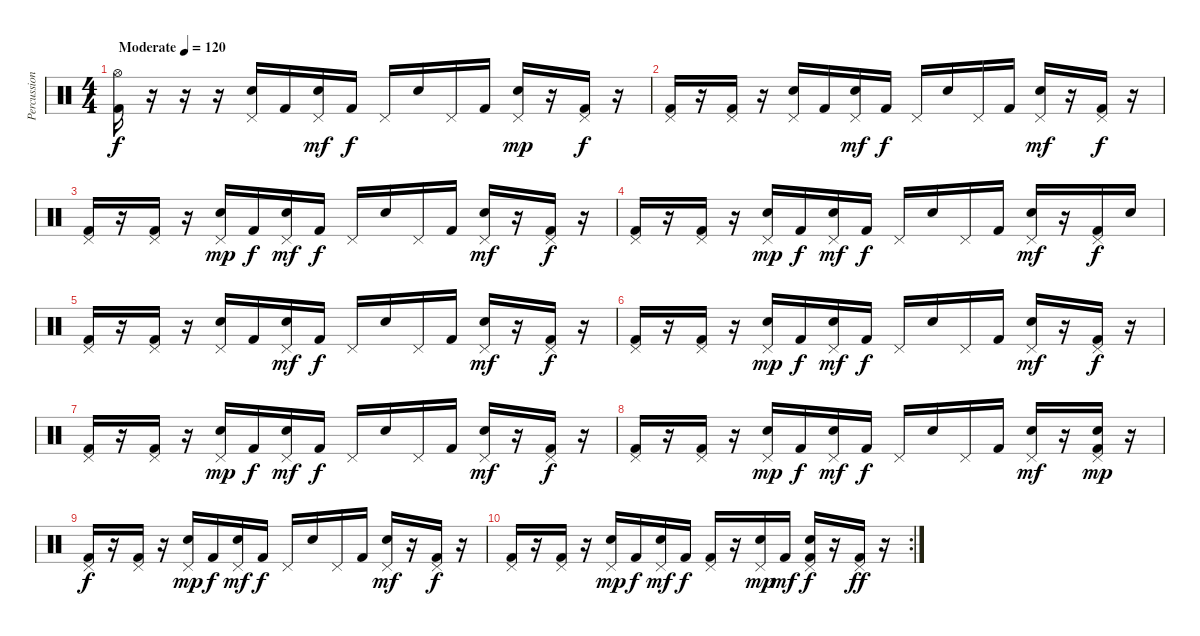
\track ("Percussion" "Percussion") {instrument percussion}
\staff {score}
\articulation defaults
\ts (4 4)
\tempo (120 "Moderate")
\clef neutral
\ks c
("Hi-Hat (open)" "Kick (hit) 2").16{dy f} r.16 r.16 r.16 ("Electric Snare (hit)" "Pedal Hi-Hat (hit)").16 "Kick (hit) 2".16 ("Electric Snare (hit)" "Pedal Hi-Hat (hit)").16{dy mf} "Kick (hit) 2".16{dy f} "Pedal Hi-Hat (hit)".16 "Electric Snare (hit)".16 "Pedal Hi-Hat (hit)".16 "Kick (hit) 2".16 ("Electric Snare (hit)" "Pedal Hi-Hat (hit)").16{dy mp} r.16 ("Pedal Hi-Hat (hit)" "Kick (hit) 2").16{dy f} r.16 |
("Pedal Hi-Hat (hit)" "Kick (hit) 2").16 r.16 ("Pedal Hi-Hat (hit)" "Kick (hit) 2").16 r.16 ("Electric Snare (hit)" "Pedal Hi-Hat (hit)").16 "Kick (hit) 2".16 ("Electric Snare (hit)" "Pedal Hi-Hat (hit)").16{dy mf} "Kick (hit) 2".16{dy f} "Pedal Hi-Hat (hit)".16 "Electric Snare (hit)".16 "Pedal Hi-Hat (hit)".16 "Kick (hit) 2".16 ("Electric Snare (hit)" "Pedal Hi-Hat (hit)").16{dy mf} r.16 ("Pedal Hi-Hat (hit)" "Kick (hit) 2").16{dy f} r.16 |
("Pedal Hi-Hat (hit)" "Kick (hit) 2").16 r.16 ("Pedal Hi-Hat (hit)" "Kick (hit) 2").16 r.16 ("Electric Snare (hit)" "Pedal Hi-Hat (hit)").16{dy mp} "Kick (hit) 2".16{dy f} ("Electric Snare (hit)" "Pedal Hi-Hat (hit)").16{dy mf} "Kick (hit) 2".16{dy f} "Pedal Hi-Hat (hit)".16 "Electric Snare (hit)".16 "Pedal Hi-Hat (hit)".16 "Kick (hit) 2".16 ("Electric Snare (hit)" "Pedal Hi-Hat (hit)").16{dy mf} r.16 ("Pedal Hi-Hat (hit)" "Kick (hit) 2").16{dy f} r.16 |
("Pedal Hi-Hat (hit)" "Kick (hit) 2").16 r.16 ("Pedal Hi-Hat (hit)" "Kick (hit) 2").16 r.16 ("Electric Snare (hit)" "Pedal Hi-Hat (hit)").16{dy mp} "Kick (hit) 2".16{dy f} ("Electric Snare (hit)" "Pedal Hi-Hat (hit)").16{dy mf} "Kick (hit) 2".16{dy f} "Pedal Hi-Hat (hit)".16 "Electric Snare (hit)".16 "Pedal Hi-Hat (hit)".16 "Kick (hit) 2".16 ("Electric Snare (hit)" "Pedal Hi-Hat (hit)").16{dy mf} r.16 ("Pedal Hi-Hat (hit)" "Kick (hit) 2").16{dy f} "Electric Snare (hit)".16 |
("Pedal Hi-Hat (hit)" "Kick (hit) 2").16 r.16 ("Pedal Hi-Hat (hit)" "Kick (hit) 2").16 r.16 ("Electric Snare (hit)" "Pedal Hi-Hat (hit)").16 "Kick (hit) 2".16 ("Electric Snare (hit)" "Pedal Hi-Hat (hit)").16{dy mf} "Kick (hit) 2".16{dy f} "Pedal Hi-Hat (hit)".16 "Electric Snare (hit)".16 "Pedal Hi-Hat (hit)".16 "Kick (hit) 2".16 ("Electric Snare (hit)" "Pedal Hi-Hat (hit)").16{dy mf} r.16 ("Pedal Hi-Hat (hit)" "Kick (hit) 2").16{dy f} r.16 |
("Pedal Hi-Hat (hit)" "Kick (hit) 2").16 r.16 ("Pedal Hi-Hat (hit)" "Kick (hit) 2").16 r.16 ("Electric Snare (hit)" "Pedal Hi-Hat (hit)").16{dy mp} "Kick (hit) 2".16{dy f} ("Electric Snare (hit)" "Pedal Hi-Hat (hit)").16{dy mf} "Kick (hit) 2".16{dy f} "Pedal Hi-Hat (hit)".16 "Electric Snare (hit)".16 "Pedal Hi-Hat (hit)".16 "Kick (hit) 2".16 ("Electric Snare (hit)" "Pedal Hi-Hat (hit)").16{dy mf} r.16 ("Pedal Hi-Hat (hit)" "Kick (hit) 2").16{dy f} r.16 |
("Pedal Hi-Hat (hit)" "Kick (hit) 2").16 r.16 ("Pedal Hi-Hat (hit)" "Kick (hit) 2").16 r.16 ("Electric Snare (hit)" "Pedal Hi-Hat (hit)").16{dy mp} "Kick (hit) 2".16{dy f} ("Electric Snare (hit)" "Pedal Hi-Hat (hit)").16{dy mf} "Kick (hit) 2".16{dy f} "Pedal Hi-Hat (hit)".16 "Electric Snare (hit)".16 "Pedal Hi-Hat (hit)".16 "Kick (hit) 2".16 ("Electric Snare (hit)" "Pedal Hi-Hat (hit)").16{dy mf} r.16 ("Pedal Hi-Hat (hit)" "Kick (hit) 2").16{dy f} r.16 |
("Pedal Hi-Hat (hit)" "Kick (hit) 2").16 r.16 ("Pedal Hi-Hat (hit)" "Kick (hit) 2").16 r.16 ("Electric Snare (hit)" "Pedal Hi-Hat (hit)").16{dy mp} "Kick (hit) 2".16{dy f} ("Electric Snare (hit)" "Pedal Hi-Hat (hit)").16{dy mf} "Kick (hit) 2".16{dy f} "Pedal Hi-Hat (hit)".16 "Electric Snare (hit)".16 "Pedal Hi-Hat (hit)".16 "Kick (hit) 2".16 ("Electric Snare (hit)" "Pedal Hi-Hat (hit)").16{dy mf} r.16 ("Electric Snare (hit)" "Pedal Hi-Hat (hit)" "Kick (hit) 2").16{dy mp} r.16 |
("Pedal Hi-Hat (hit)" "Kick (hit) 2").16{dy f} r.16 ("Pedal Hi-Hat (hit)" "Kick (hit) 2").16 r.16 ("Electric Snare (hit)" "Pedal Hi-Hat (hit)").16{dy mp} "Kick (hit) 2".16{dy f} ("Electric Snare (hit)" "Pedal Hi-Hat (hit)").16{dy mf} "Kick (hit) 2".16{dy f} "Pedal Hi-Hat (hit)".16 "Electric Snare (hit)".16 "Pedal Hi-Hat (hit)".16 "Kick (hit) 2".16 ("Electric Snare (hit)" "Pedal Hi-Hat (hit)").16{dy mf} r.16 ("Pedal Hi-Hat (hit)" "Kick (hit) 2").16{dy f} r.16 |
\rc 2
("Pedal Hi-Hat (hit)" "Kick (hit) 2").16 r.16 ("Pedal Hi-Hat (hit)" "Kick (hit) 2").16 r.16 ("Electric Snare (hit)" "Pedal Hi-Hat (hit)").16{dy mp} "Kick (hit) 2".16{dy f} ("Electric Snare (hit)" "Pedal Hi-Hat (hit)").16{dy mf} "Kick (hit) 2".16{dy f} ("Pedal Hi-Hat (hit)" "Kick (hit) 2").16 r.16 ("Electric Snare (hit)" "Pedal Hi-Hat (hit)").16{dy mp} "Kick (hit) 2".16{dy mf} ("Electric Snare (hit)" "Pedal Hi-Hat (hit)" "Kick (hit) 2").16{dy f} r.16 ("Pedal Hi-Hat (hit)" "Kick (hit) 2").16{dy ff} r.16
